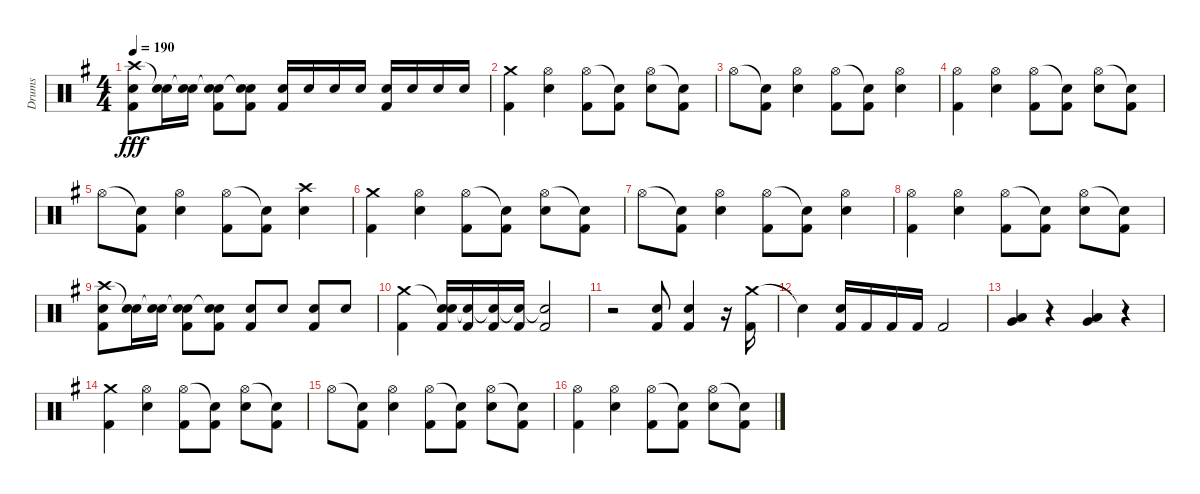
\track ("Drums" "Drums") {instrument percussion}
\staff {score}
\articulation defaults
\ts (4 4)
\tempo 190
\clef neutral
\ks eminor
("Crash high (hit)" "Electric Snare (hit)" "Kick (hit) 2").8{dy fff} ("Snare (hit)"{t} "Electric Snare (hit)").16 ("Snare (hit)"{t} "Electric Snare (hit)").16 ("Snare (hit)"{t} "Electric Snare (hit)" "Kick (hit) 2").8 ("Snare (hit)"{t} "Electric Snare (hit)" "Kick (hit) 2").8 ("Electric Snare (hit)" "Kick (hit) 2").16 "Electric Snare (hit)".16 "Electric Snare (hit)".16 "Electric Snare (hit)".16 ("Electric Snare (hit)" "Kick (hit) 2").16 "Electric Snare (hit)".16 "Electric Snare (hit)".16 "Electric Snare (hit)".16 |
("Crash medium (hit)" "Kick (hit) 2").4 ("Hi-Hat (open)" "Electric Snare (hit)").4 ("Hi-Hat (open)" "Kick (hit) 2").8 ("Snare (hit)"{t} "Kick (hit) 2").8 ("Hi-Hat (open)" "Electric Snare (hit)").8 ("Snare (hit)"{t} "Kick (hit) 2").8 |
"Hi-Hat (open)".8 ("Snare (hit)"{t} "Kick (hit) 2").8 ("Hi-Hat (open)" "Electric Snare (hit)").4 ("Hi-Hat (open)" "Kick (hit) 2").8 ("Snare (hit)"{t} "Kick (hit) 2").8 ("Hi-Hat (open)" "Electric Snare (hit)").4 |
("Hi-Hat (open)" "Kick (hit) 2").4 ("Hi-Hat (open)" "Electric Snare (hit)").4 ("Hi-Hat (open)" "Kick (hit) 2").8 ("Snare (hit)"{t} "Kick (hit) 2").8 ("Hi-Hat (open)" "Electric Snare (hit)").8 ("Snare (hit)"{t} "Kick (hit) 2").8 |
"Hi-Hat (open)".8 ("Snare (hit)"{t} "Kick (hit) 2").8 ("Hi-Hat (open)" "Electric Snare (hit)").4 ("Hi-Hat (open)" "Kick (hit) 2").8 ("Snare (hit)"{t} "Kick (hit) 2").8 ("Crash high (hit)" "Electric Snare (hit)").4 |
("Crash medium (hit)" "Kick (hit) 2").4 ("Hi-Hat (open)" "Electric Snare (hit)").4 ("Hi-Hat (open)" "Kick (hit) 2").8 ("Snare (hit)"{t} "Kick (hit) 2").8 ("Hi-Hat (open)" "Electric Snare (hit)").8 ("Snare (hit)"{t} "Kick (hit) 2").8 |
"Hi-Hat (open)".8 ("Snare (hit)"{t} "Kick (hit) 2").8 ("Hi-Hat (open)" "Electric Snare (hit)").4 ("Hi-Hat (open)" "Kick (hit) 2").8 ("Snare (hit)"{t} "Kick (hit) 2").8 ("Hi-Hat (open)" "Electric Snare (hit)").4 |
("Hi-Hat (open)" "Kick (hit) 2").4 ("Hi-Hat (open)" "Electric Snare (hit)").4 ("Hi-Hat (open)" "Kick (hit) 2").8 ("Snare (hit)"{t} "Kick (hit) 2").8 ("Hi-Hat (open)" "Electric Snare (hit)").8 ("Snare (hit)"{t} "Kick (hit) 2").8 |
("Crash high (hit)" "Electric Snare (hit)" "Kick (hit) 2").8 ("Snare (hit)"{t} "Electric Snare (hit)").16 ("Snare (hit)"{t} "Electric Snare (hit)").16 ("Snare (hit)"{t} "Electric Snare (hit)" "Kick (hit) 2").8 ("Snare (hit)"{t} "Electric Snare (hit)" "Kick (hit) 2").8 ("Electric Snare (hit)" "Kick (hit) 2").8 "Electric Snare (hit)".8 ("Electric Snare (hit)" "Kick (hit) 2").8 "Electric Snare (hit)".8 |
("Crash medium (hit)" "Kick (hit) 2").4 ("Snare (hit)"{t} "Electric Snare (hit)" "Kick (hit) 2").16 ("Snare (hit)"{t} "Kick (hit) 2").16 ("Snare (hit)"{t} "Kick (hit) 2").16 ("Snare (hit)"{t} "Kick (hit) 2").16 ("Snare (hit)"{t} "Kick (hit) 2").2 |
r.2 ("Electric Snare (hit)" "Kick (hit) 2").8 ("Electric Snare (hit)" "Kick (hit) 2").4 r.16 ("Crash medium (hit)" "Kick (hit) 2").16 |
"Snare (hit)"{t}.4 ("Electric Snare (hit)" "Kick (hit) 2").16 "Kick (hit) 2".16 "Kick (hit) 2".16 "Kick (hit) 2".16 "Kick (hit) 2".2 |
("Very Low Tom (hit)" "Low Floor Tom (hit)").4 r.4 ("Very Low Tom (hit)" "Low Floor Tom (hit)").4 r.4 |
("Crash medium (hit)" "Kick (hit) 2").4 ("Hi-Hat (open)" "Electric Snare (hit)").4 ("Hi-Hat (open)" "Kick (hit) 2").8 ("Snare (hit)"{t} "Kick (hit) 2").8 ("Hi-Hat (open)" "Electric Snare (hit)").8 ("Snare (hit)"{t} "Kick (hit) 2").8 |
"Hi-Hat (open)".8 ("Snare (hit)"{t} "Kick (hit) 2").8 ("Hi-Hat (open)" "Electric Snare (hit)").4 ("Hi-Hat (open)" "Kick (hit) 2").8 ("Snare (hit)"{t} "Kick (hit) 2").8 ("Hi-Hat (open)" "Electric Snare (hit)").8 ("Snare (hit)"{t} "Kick (hit) 2").8 |
("Hi-Hat (open)" "Kick (hit) 2").4 ("Hi-Hat (open)" "Electric Snare (hit)").4 ("Hi-Hat (open)" "Kick (hit) 2").8 ("Snare (hit)"{t} "Kick (hit) 2").8 ("Hi-Hat (open)" "Electric Snare (hit)").8 ("Snare (hit)"{t} "Kick (hit) 2").8
